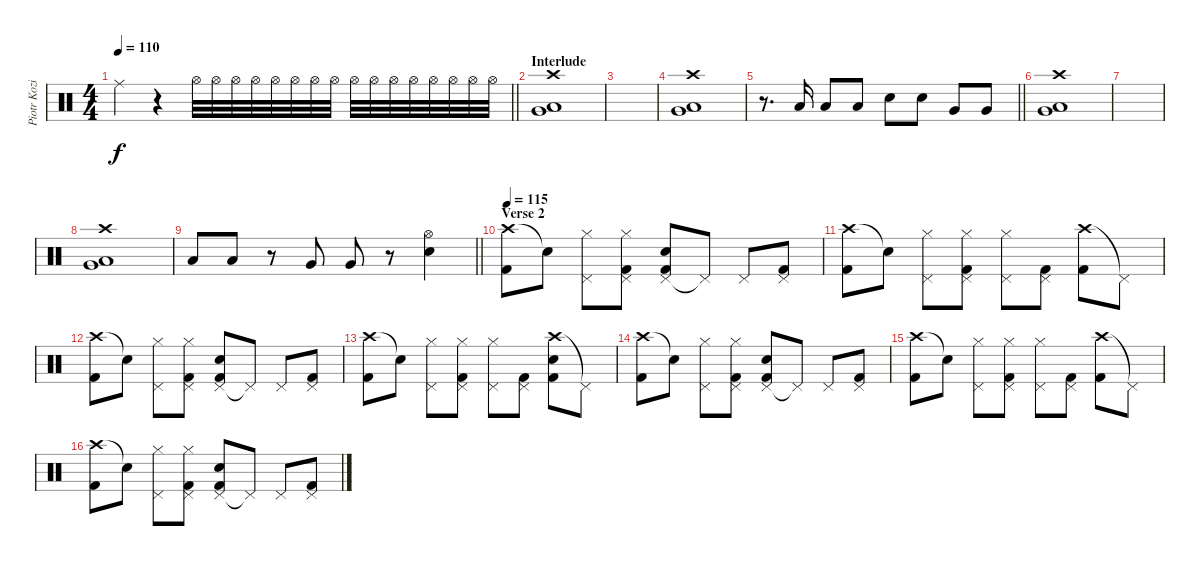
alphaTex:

\track ("Piotr Kozieradzki" "Piotr Kozi") {instrument percussion}
\staff {score}
\articulation defaults
\ts (4 4)
\tempo 110
\clef neutral
\barLineRight lightlight
\ks c "Ride (middle)".4{dy f}
r.4{volume 0} "Hi-Hat (open)".32{volume 13} "Hi-Hat (open)".32 "Hi-Hat (open)".32 "Hi-Hat (open)".32 "Hi-Hat (open)".32 "Hi-Hat (open)".32 "Hi-Hat (open)".32 "Hi-Hat (open)".32 "Hi-Hat (open)".32 "Hi-Hat (open)".32 "Hi-Hat (open)".32 "Hi-Hat (open)".32 "Hi-Hat (open)".32 "Hi-Hat (open)".32 "Hi-Hat (open)".32 "Hi-Hat (open)".32 |
\section ("" "Interlude")
("Crash high (hit)" "Low Tom (hit)" "Very Low Tom (hit)").1 |
|
("Crash high (hit)" "Low Tom (hit)" "Very Low Tom (hit)").1 |
\barLineRight lightlight
r.8{d} "Low Tom (hit)".16 "Low Tom (hit)".8 "Low Tom (hit)".8 "Electric Snare (hit)".8 "Electric Snare (hit)".8 "Very Low Tom (hit)".8 "Very Low Tom (hit)".8 |
("Crash high (hit)" "Low Tom (hit)" "Very Low Tom (hit)").1 |
|
("Crash high (hit)" "Low Tom (hit)" "Very Low Tom (hit)").1 |
\barLineRight lightlight "Low Tom (hit)".8 "Low Tom (hit)".8
r.8 "Very Low Tom (hit)".8 "Very Low Tom (hit)".8 r.8 ("Hi-Hat (open)" "Electric Snare (hit)").4 |
\section ("" "Verse 2")
\tempo 115
("Crash high (hit)" "Kick (hit) 2").8 "Snare (hit)"{t}.8 ("Pedal Hi-Hat (hit)" "Hi-Hat (closed)").8 ("Pedal Hi-Hat (hit)" "Hi-Hat (closed)" "Kick (hit) 2").8 ("Pedal Hi-Hat (hit)" "Electric Snare (hit)" "Kick (hit) 2").8 "Pedal Hi-Hat (hit)"{t}.8 "Pedal Hi-Hat (hit)".8 ("Pedal Hi-Hat (hit)" "Kick (hit) 2").8 |
("Crash high (hit)" "Kick (hit) 2").8 "Snare (hit)"{t}.8 ("Pedal Hi-Hat (hit)" "Hi-Hat (closed)").8 ("Pedal Hi-Hat (hit)" "Hi-Hat (closed)" "Kick (hit) 2").8 ("Pedal Hi-Hat (hit)" "Hi-Hat (closed)").8 ("Pedal Hi-Hat (hit)" "Kick (hit) 2").8 ("Crash high (hit)" "Kick (hit) 2").8 "Pedal Hi-Hat (hit)"{t}.8 |
("Crash high (hit)" "Kick (hit) 2").8 "Snare (hit)"{t}.8 ("Pedal Hi-Hat (hit)" "Hi-Hat (closed)").8 ("Pedal Hi-Hat (hit)" "Hi-Hat (closed)" "Kick (hit) 2").8 ("Pedal Hi-Hat (hit)" "Electric Snare (hit)" "Kick (hit) 2").8 "Pedal Hi-Hat (hit)"{t}.8 "Pedal Hi-Hat (hit)".8 ("Pedal Hi-Hat (hit)" "Kick (hit) 2").8 |
("Crash high (hit)" "Kick (hit) 2").8 "Snare (hit)"{t}.8 ("Pedal Hi-Hat (hit)" "Hi-Hat (closed)").8 ("Pedal Hi-Hat (hit)" "Hi-Hat (closed)" "Kick (hit) 2").8 ("Pedal Hi-Hat (hit)" "Hi-Hat (closed)").8 ("Pedal Hi-Hat (hit)" "Kick (hit) 2").8 ("Crash high (hit)" "Electric Snare (hit)" "Kick (hit) 2").8 "Pedal Hi-Hat (hit)"{t}.8 |
("Crash high (hit)" "Kick (hit) 2").8 "Snare (hit)"{t}.8 ("Pedal Hi-Hat (hit)" "Hi-Hat (closed)").8 ("Pedal Hi-Hat (hit)" "Hi-Hat (closed)" "Kick (hit) 2").8 ("Pedal Hi-Hat (hit)" "Electric Snare (hit)" "Kick (hit) 2").8 "Pedal Hi-Hat (hit)"{t}.8 "Pedal Hi-Hat (hit)".8 ("Pedal Hi-Hat (hit)" "Kick (hit) 2").8 |
("Crash high (hit)" "Kick (hit) 2").8 "Snare (hit)"{t}.8 ("Pedal Hi-Hat (hit)" "Hi-Hat (closed)").8 ("Pedal Hi-Hat (hit)" "Hi-Hat (closed)" "Kick (hit) 2").8 ("Pedal Hi-Hat (hit)" "Hi-Hat (closed)").8 ("Pedal Hi-Hat (hit)" "Kick (hit) 2").8 ("Crash high (hit)" "Kick (hit) 2").8 "Pedal Hi-Hat (hit)"{t}.8 |
("Crash high (hit)" "Kick (hit) 2").8 "Snare (hit)"{t}.8 ("Pedal Hi-Hat (hit)" "Hi-Hat (closed)").8 ("Pedal Hi-Hat (hit)" "Hi-Hat (closed)" "Kick (hit) 2").8 ("Pedal Hi-Hat (hit)" "Electric Snare (hit)" "Kick (hit) 2").8 "Pedal Hi-Hat (hit)"{t}.8 "Pedal Hi-Hat (hit)".8 ("Pedal Hi-Hat (hit)" "Kick (hit) 2").8
